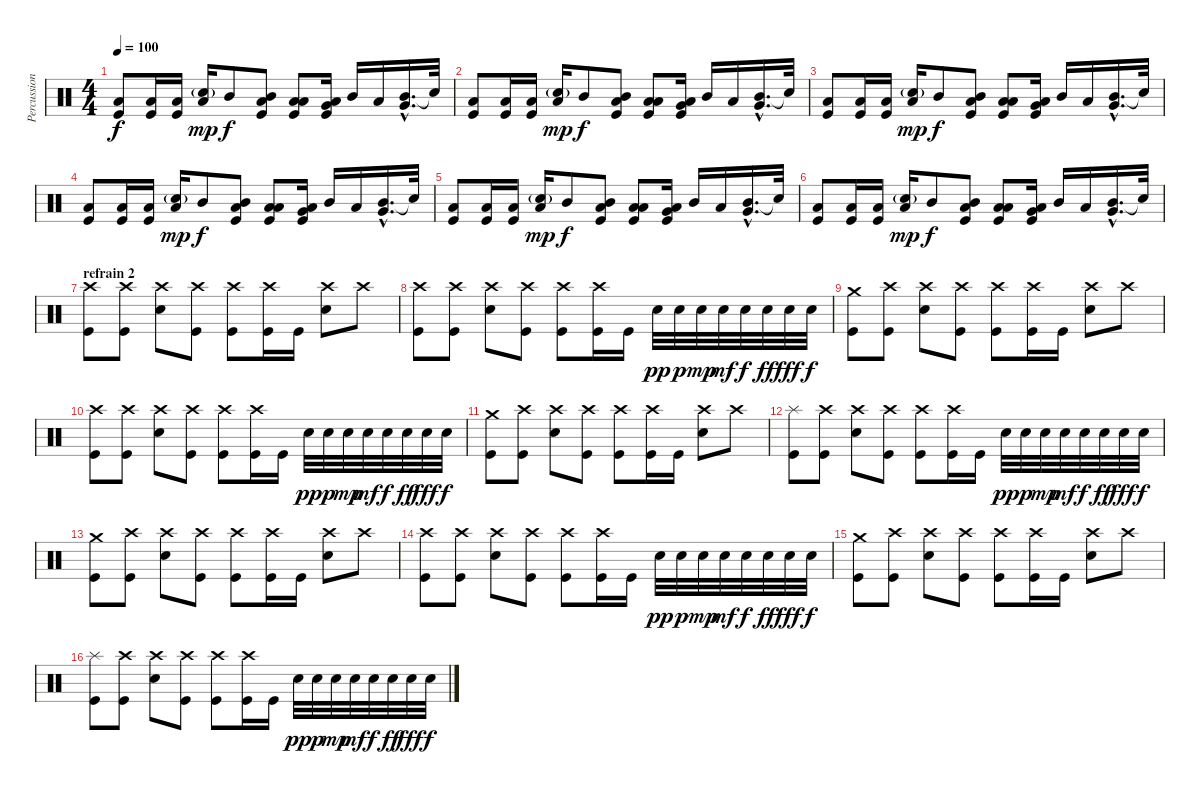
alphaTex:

\track ("Percussions" "Percussion") {instrument percussion}
\staff {score}
\articulation defaults
\ts (4 4)
\tempo 100
\clef neutral
\ks c
("Kick (hit)" "Low Floor Tom (hit)").8{dy f} ("Kick (hit)" "Low Floor Tom (hit)").16 ("Kick (hit)" "Low Floor Tom (hit)").16 ("Electric Snare (hit)"{g} "Low Tom (hit)").16{dy mp} "Mid Tom (hit)".8{dy f balance 0} ("Mid Tom (hit)" "Kick (hit)" "Low Floor Tom (hit)").8{balance 16} ("Low Tom (hit)" "Kick (hit)" "Low Floor Tom (hit)").8{balance 0} ("Very Low Tom (hit)" "Kick (hit)" "Low Floor Tom (hit)").16{balance 16} "Mid Tom (hit)".16{balance 16} "Low Tom (hit)".16{balance 0} ("Mid Tom (hit)"{hac} "Very Low Tom (hit)"{hac}).16{d volume 13 balance 8} "Snare (hit)"{t}.32 |
("Kick (hit)" "Low Floor Tom (hit)").8 ("Kick (hit)" "Low Floor Tom (hit)").16 ("Kick (hit)" "Low Floor Tom (hit)").16 ("Electric Snare (hit)"{g} "Low Tom (hit)").16{dy mp} "Mid Tom (hit)".8{dy f balance 0} ("Mid Tom (hit)" "Kick (hit)" "Low Floor Tom (hit)").8{balance 16} ("Low Tom (hit)" "Kick (hit)" "Low Floor Tom (hit)").8{balance 0} ("Very Low Tom (hit)" "Kick (hit)" "Low Floor Tom (hit)").16{balance 16} "Mid Tom (hit)".16{balance 16} "Low Tom (hit)".16{balance 0} ("Mid Tom (hit)"{hac} "Very Low Tom (hit)"{hac}).16{d volume 13 balance 8} "Snare (hit)"{t}.32 |
("Kick (hit)" "Low Floor Tom (hit)").8 ("Kick (hit)" "Low Floor Tom (hit)").16 ("Kick (hit)" "Low Floor Tom (hit)").16 ("Electric Snare (hit)"{g} "Low Tom (hit)").16{dy mp} "Mid Tom (hit)".8{dy f balance 0} ("Mid Tom (hit)" "Kick (hit)" "Low Floor Tom (hit)").8{balance 16} ("Low Tom (hit)" "Kick (hit)" "Low Floor Tom (hit)").8{balance 0} ("Very Low Tom (hit)" "Kick (hit)" "Low Floor Tom (hit)").16{balance 16} "Mid Tom (hit)".16{balance 16} "Low Tom (hit)".16{balance 0} ("Mid Tom (hit)"{hac} "Very Low Tom (hit)"{hac}).16{d volume 13 balance 8} "Snare (hit)"{t}.32 |
("Kick (hit)" "Low Floor Tom (hit)").8 ("Kick (hit)" "Low Floor Tom (hit)").16 ("Kick (hit)" "Low Floor Tom (hit)").16 ("Electric Snare (hit)"{g} "Low Tom (hit)").16{dy mp} "Mid Tom (hit)".8{dy f balance 0} ("Mid Tom (hit)" "Kick (hit)" "Low Floor Tom (hit)").8{balance 16} ("Low Tom (hit)" "Kick (hit)" "Low Floor Tom (hit)").8{balance 0} ("Very Low Tom (hit)" "Kick (hit)" "Low Floor Tom (hit)").16{balance 16} "Mid Tom (hit)".16{balance 16} "Low Tom (hit)".16{balance 0} ("Mid Tom (hit)"{hac} "Very Low Tom (hit)"{hac}).16{d volume 13 balance 8} "Snare (hit)"{t}.32 |
("Kick (hit)" "Low Floor Tom (hit)").8 ("Kick (hit)" "Low Floor Tom (hit)").16 ("Kick (hit)" "Low Floor Tom (hit)").16 ("Electric Snare (hit)"{g} "Low Tom (hit)").16{dy mp} "Mid Tom (hit)".8{dy f balance 0} ("Mid Tom (hit)" "Kick (hit)" "Low Floor Tom (hit)").8{balance 16} ("Low Tom (hit)" "Kick (hit)" "Low Floor Tom (hit)").8{balance 0} ("Very Low Tom (hit)" "Kick (hit)" "Low Floor Tom (hit)").16{balance 16} "Mid Tom (hit)".16{balance 16} "Low Tom (hit)".16{balance 0} ("Mid Tom (hit)"{hac} "Very Low Tom (hit)"{hac}).16{d volume 13 balance 8} "Snare (hit)"{t}.32 |
("Kick (hit)" "Low Floor Tom (hit)").8 ("Kick (hit)" "Low Floor Tom (hit)").16 ("Kick (hit)" "Low Floor Tom (hit)").16 ("Electric Snare (hit)"{g} "Low Tom (hit)").16{dy mp} "Mid Tom (hit)".8{dy f balance 0} ("Mid Tom (hit)" "Kick (hit)" "Low Floor Tom (hit)").8{balance 16} ("Low Tom (hit)" "Kick (hit)" "Low Floor Tom (hit)").8{balance 0} ("Very Low Tom (hit)" "Kick (hit)" "Low Floor Tom (hit)").16{balance 16} "Mid Tom (hit)".16{balance 16} "Low Tom (hit)".16{balance 0} ("Mid Tom (hit)"{hac} "Very Low Tom (hit)"{hac}).16{d volume 13 balance 8} "Snare (hit)"{t}.32 |
\section ("" "refrain 2")
("Crash high (hit)" "Kick (hit)").8 ("Crash high (hit)" "Kick (hit)").8 ("Crash high (hit)" "Electric Snare (hit)").8 ("Crash high (hit)" "Kick (hit)").8 ("Crash high (hit)" "Kick (hit)").8 ("Crash high (hit)" "Kick (hit)").16 "Kick (hit)".16 ("Crash high (hit)" "Electric Snare (hit)").8 "Crash high (hit)".8 |
("Crash high (hit)" "Kick (hit)").8 ("Crash high (hit)" "Kick (hit)").8 ("Crash high (hit)" "Electric Snare (hit)").8 ("Crash high (hit)" "Kick (hit)").8 ("Crash high (hit)" "Kick (hit)").8 ("Crash high (hit)" "Kick (hit)").16 "Kick (hit)".16 "Electric Snare (hit)".32{dy pp} "Electric Snare (hit)".32{dy p} "Electric Snare (hit)".32{dy mp} "Electric Snare (hit)".32{dy mf} "Electric Snare (hit)".32{dy f} "Electric Snare (hit)".32{dy ff} "Electric Snare (hit)".32{dy fff} "Electric Snare (hit)".32{dy f} |
("Crash medium (hit)" "Kick (hit)").8 ("Crash high (hit)" "Kick (hit)").8 ("Crash high (hit)" "Electric Snare (hit)").8 ("Crash high (hit)" "Kick (hit)").8 ("Crash high (hit)" "Kick (hit)").8 ("Crash high (hit)" "Kick (hit)").16 "Kick (hit)".16 ("Crash high (hit)" "Electric Snare (hit)").8 "Crash high (hit)".8 |
("Crash high (hit)" "Kick (hit)").8 ("Crash high (hit)" "Kick (hit)").8 ("Crash high (hit)" "Electric Snare (hit)").8 ("Crash high (hit)" "Kick (hit)").8 ("Crash high (hit)" "Kick (hit)").8 ("Crash high (hit)" "Kick (hit)").16 "Kick (hit)".16 "Electric Snare (hit)".32{dy pp} "Electric Snare (hit)".32{dy p} "Electric Snare (hit)".32{dy mp} "Electric Snare (hit)".32{dy mf} "Electric Snare (hit)".32{dy f} "Electric Snare (hit)".32{dy ff} "Electric Snare (hit)".32{dy fff} "Electric Snare (hit)".32{dy f} |
("Crash medium (hit)" "Kick (hit)").8 ("Crash high (hit)" "Kick (hit)").8 ("Crash high (hit)" "Electric Snare (hit)").8 ("Crash high (hit)" "Kick (hit)").8 ("Crash high (hit)" "Kick (hit)").8 ("Crash high (hit)" "Kick (hit)").16 "Kick (hit)".16 ("Crash high (hit)" "Electric Snare (hit)").8 "Crash high (hit)".8 |
("Splash (hit)" "Kick (hit)").8 ("Crash high (hit)" "Kick (hit)").8 ("Crash high (hit)" "Electric Snare (hit)").8 ("Crash high (hit)" "Kick (hit)").8 ("Crash high (hit)" "Kick (hit)").8 ("Crash high (hit)" "Kick (hit)").16 "Kick (hit)".16 "Electric Snare (hit)".32{dy pp} "Electric Snare (hit)".32{dy p} "Electric Snare (hit)".32{dy mp} "Electric Snare (hit)".32{dy mf} "Electric Snare (hit)".32{dy f} "Electric Snare (hit)".32{dy ff} "Electric Snare (hit)".32{dy fff} "Electric Snare (hit)".32{dy f} |
("Crash medium (hit)" "Kick (hit)").8 ("Crash high (hit)" "Kick (hit)").8 ("Crash high (hit)" "Electric Snare (hit)").8 ("Crash high (hit)" "Kick (hit)").8 ("Crash high (hit)" "Kick (hit)").8 ("Crash high (hit)" "Kick (hit)").16 "Kick (hit)".16 ("Crash high (hit)" "Electric Snare (hit)").8 "Crash high (hit)".8 |
("Crash high (hit)" "Kick (hit)").8 ("Crash high (hit)" "Kick (hit)").8 ("Crash high (hit)" "Electric Snare (hit)").8 ("Crash high (hit)" "Kick (hit)").8 ("Crash high (hit)" "Kick (hit)").8 ("Crash high (hit)" "Kick (hit)").16 "Kick (hit)".16 "Electric Snare (hit)".32{dy pp} "Electric Snare (hit)".32{dy p} "Electric Snare (hit)".32{dy mp} "Electric Snare (hit)".32{dy mf} "Electric Snare (hit)".32{dy f} "Electric Snare (hit)".32{dy ff} "Electric Snare (hit)".32{dy fff} "Electric Snare (hit)".32{dy f} |
("Crash medium (hit)" "Kick (hit)").8 ("Crash high (hit)" "Kick (hit)").8 ("Crash high (hit)" "Electric Snare (hit)").8 ("Crash high (hit)" "Kick (hit)").8 ("Crash high (hit)" "Kick (hit)").8 ("Crash high (hit)" "Kick (hit)").16 "Kick (hit)".16 ("Crash high (hit)" "Electric Snare (hit)").8 "Crash high (hit)".8 |
("Splash (hit)" "Kick (hit)").8 ("Crash high (hit)" "Kick (hit)").8 ("Crash high (hit)" "Electric Snare (hit)").8 ("Crash high (hit)" "Kick (hit)").8 ("Crash high (hit)" "Kick (hit)").8 ("Crash high (hit)" "Kick (hit)").16 "Kick (hit)".16 "Electric Snare (hit)".32{dy pp} "Electric Snare (hit)".32{dy p} "Electric Snare (hit)".32{dy mp} "Electric Snare (hit)".32{dy mf} "Electric Snare (hit)".32{dy f} "Electric Snare (hit)".32{dy ff} "Electric Snare (hit)".32{dy fff} "Electric Snare (hit)".32{dy f}
